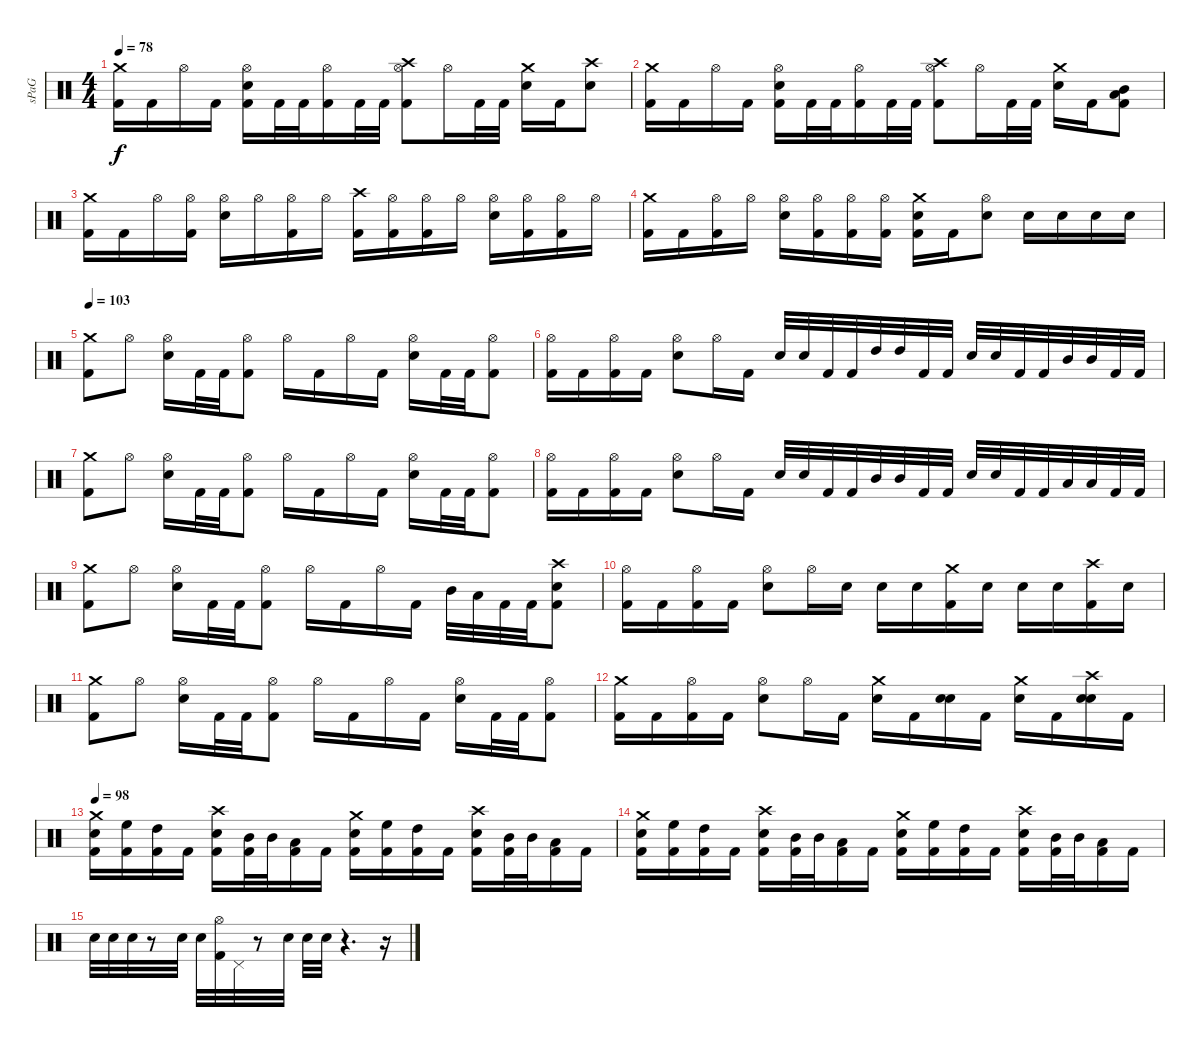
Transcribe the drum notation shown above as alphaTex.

\track ("sPaG" "sPaG") {instrument percussion}
\staff {score}
\articulation defaults
\ts (4 4)
\tempo 78
\clef neutral
\ks c
("Crash medium (hit)" "Kick (hit) 2").16{dy f} "Kick (hit) 2".16 "Hi-Hat (open)".16 "Kick (hit) 2".16 ("Hi-Hat (open)" "Snare (hit) 2" "Kick (hit) 2").16 "Kick (hit) 2".32 "Kick (hit) 2".32 ("Hi-Hat (open)" "Kick (hit) 2").16 "Kick (hit) 2".32 "Kick (hit) 2".32 ("Crash high (hit)" "Hi-Hat (open)" "Kick (hit) 2").8 "Hi-Hat (open)".16 "Kick (hit) 2".32 "Kick (hit) 2".32 ("Crash medium (hit)" "Snare (hit) 2").16 "Kick (hit) 2".16 ("Crash high (hit)" "Snare (hit) 2").8 |
("Crash medium (hit)" "Kick (hit) 2").16 "Kick (hit) 2".16 "Hi-Hat (open)".16 "Kick (hit) 2".16 ("Hi-Hat (open)" "Snare (hit) 2" "Kick (hit) 2").16 "Kick (hit) 2".32 "Kick (hit) 2".32 ("Hi-Hat (open)" "Kick (hit) 2").16 "Kick (hit) 2".32 "Kick (hit) 2".32 ("Crash high (hit)" "Hi-Hat (open)" "Kick (hit) 2").8 "Hi-Hat (open)".16 "Kick (hit) 2".32 "Kick (hit) 2".32 ("Crash medium (hit)" "Snare (hit) 2").16 "Kick (hit) 2".16 ("Mid Tom (hit)" "Low Tom (hit)" "Kick (hit) 2").8 |
("Crash medium (hit)" "Kick (hit) 2").16 "Kick (hit) 2".16 "Hi-Hat (open)".16 ("Hi-Hat (open)" "Kick (hit) 2").16 ("Hi-Hat (open)" "Snare (hit) 2").16 "Hi-Hat (open)".16 ("Hi-Hat (open)" "Kick (hit) 2").16 "Hi-Hat (open)".16 ("Crash high (hit)" "Kick (hit) 2").16 ("Hi-Hat (open)" "Kick (hit) 2").16 ("Hi-Hat (open)" "Kick (hit) 2").16 "Hi-Hat (open)".16 ("Hi-Hat (open)" "Snare (hit) 2").16 ("Hi-Hat (open)" "Kick (hit) 2").16 ("Hi-Hat (open)" "Kick (hit) 2").16 "Hi-Hat (open)".16 |
("Crash medium (hit)" "Kick (hit) 2").16 "Kick (hit) 2".16 ("Hi-Hat (open)" "Kick (hit) 2").16 "Hi-Hat (open)".16 ("Hi-Hat (open)" "Snare (hit) 2").16 ("Hi-Hat (open)" "Kick (hit) 2").16 ("Hi-Hat (open)" "Kick (hit) 2").16 ("Hi-Hat (open)" "Kick (hit) 2").16 ("Crash medium (hit)" "Snare (hit) 2" "Kick (hit) 2").16 "Kick (hit) 2".16 ("Hi-Hat (open)" "Snare (hit) 2").8 "Snare (hit) 2".16 "Snare (hit) 2".16 "Snare (hit) 2".16 "Snare (hit) 2".16 |
\tempo 103
("Crash medium (hit)" "Kick (hit) 2").8 "Hi-Hat (open)".8 ("Hi-Hat (open)" "Snare (hit) 2").16 "Kick (hit) 2".32 "Kick (hit) 2".32 ("Hi-Hat (open)" "Kick (hit) 2").8 "Hi-Hat (open)".16 "Kick (hit) 2".16 "Hi-Hat (open)".16 "Kick (hit) 2".16 ("Hi-Hat (open)" "Snare (hit) 2").16 "Kick (hit) 2".32 "Kick (hit) 2".32 ("Hi-Hat (open)" "Kick (hit) 2").8 |
("Hi-Hat (open)" "Kick (hit) 2").16 "Kick (hit) 2".16 ("Hi-Hat (open)" "Kick (hit) 2").16 "Kick (hit) 2".16 ("Hi-Hat (open)" "Snare (hit) 2").8 "Hi-Hat (open)".16 "Kick (hit) 2".16 "Snare (hit) 2".32 "Snare (hit) 2".32 "Kick (hit) 2".32 "Kick (hit) 2".32 "High Tom (hit)".32 "High Tom (hit)".32 "Kick (hit) 2".32 "Kick (hit) 2".32 "Snare (hit) 2".32 "Snare (hit) 2".32 "Kick (hit) 2".32 "Kick (hit) 2".32 "Mid Tom (hit)".32 "Mid Tom (hit)".32 "Kick (hit) 2".32 "Kick (hit) 2".32 |
("Crash medium (hit)" "Kick (hit) 2").8 "Hi-Hat (open)".8 ("Hi-Hat (open)" "Snare (hit) 2").16 "Kick (hit) 2".32 "Kick (hit) 2".32 ("Hi-Hat (open)" "Kick (hit) 2").8 "Hi-Hat (open)".16 "Kick (hit) 2".16 "Hi-Hat (open)".16 "Kick (hit) 2".16 ("Hi-Hat (open)" "Snare (hit) 2").16 "Kick (hit) 2".32 "Kick (hit) 2".32 ("Hi-Hat (open)" "Kick (hit) 2").8 |
("Hi-Hat (open)" "Kick (hit) 2").16 "Kick (hit) 2".16 ("Hi-Hat (open)" "Kick (hit) 2").16 "Kick (hit) 2".16 ("Hi-Hat (open)" "Snare (hit) 2").8 "Hi-Hat (open)".16 "Kick (hit) 2".16 "Snare (hit) 2".32 "Snare (hit) 2".32 "Kick (hit) 2".32 "Kick (hit) 2".32 "Mid Tom (hit)".32 "Mid Tom (hit)".32 "Kick (hit) 2".32 "Kick (hit) 2".32 "Snare (hit) 2".32 "Snare (hit) 2".32 "Kick (hit) 2".32 "Kick (hit) 2".32 "Low Tom (hit)".32 "Low Tom (hit)".32 "Kick (hit) 2".32 "Kick (hit) 2".32 |
("Crash medium (hit)" "Kick (hit) 2").8 "Hi-Hat (open)".8 ("Hi-Hat (open)" "Snare (hit) 2").16 "Kick (hit) 2".32 "Kick (hit) 2".32 ("Hi-Hat (open)" "Kick (hit) 2").8 "Hi-Hat (open)".16 "Kick (hit) 2".16 "Hi-Hat (open)".16 "Kick (hit) 2".16 "Mid Tom (hit)".32 "Low Tom (hit)".32 "Kick (hit) 2".32 "Kick (hit) 2".32 ("Crash high (hit)" "Snare (hit) 2" "Kick (hit) 2").8 |
("Hi-Hat (open)" "Kick (hit) 2").16 "Kick (hit) 2".16 ("Hi-Hat (open)" "Kick (hit) 2").16 "Kick (hit) 2".16 ("Hi-Hat (open)" "Snare (hit) 2").8 "Hi-Hat (open)".16 "Snare (hit) 2".16 "Snare (hit) 2".16 "Snare (hit) 2".16 ("Crash medium (hit)" "Kick (hit) 2").16 "Snare (hit) 2".16 "Snare (hit) 2".16 "Snare (hit) 2".16 ("Crash high (hit)" "Kick (hit) 2").16 "Snare (hit) 2".16 |
("Crash medium (hit)" "Kick (hit) 2").8 "Hi-Hat (open)".8 ("Hi-Hat (open)" "Snare (hit) 2").16 "Kick (hit) 2".32 "Kick (hit) 2".32 ("Hi-Hat (open)" "Kick (hit) 2").8 "Hi-Hat (open)".16 "Kick (hit) 2".16 "Hi-Hat (open)".16 "Kick (hit) 2".16 ("Hi-Hat (open)" "Snare (hit) 2").16 "Kick (hit) 2".32 "Kick (hit) 2".32 ("Hi-Hat (open)" "Kick (hit) 2").8 |
("Crash medium (hit)" "Kick (hit) 2").16 "Kick (hit) 2".16 ("Hi-Hat (open)" "Kick (hit) 2").16 "Kick (hit) 2".16 ("Hi-Hat (open)" "Snare (hit) 2").8 "Hi-Hat (open)".16 "Kick (hit) 2".16 ("Crash medium (hit)" "Snare (hit) 2").16 "Kick (hit) 2".16 ("Snare (hit) 2" "Snare (hit) 2").16 "Kick (hit) 2".16 ("Crash medium (hit)" "Snare (hit) 2").16 "Kick (hit) 2".16 ("Crash high (hit)" "Snare (hit) 2" "Snare (hit) 2").16 "Kick (hit) 2".16 |
\tempo 98
("Crash medium (hit)" "Snare (hit) 2" "Kick (hit) 2").16 ("High Floor Tom (hit)" "Kick (hit) 2").16 ("High Tom (hit)" "Kick (hit) 2").16 "Kick (hit) 2".16 ("Crash high (hit)" "Snare (hit) 2" "Kick (hit) 2").16 ("Mid Tom (hit)" "Kick (hit) 2").32 "Mid Tom (hit)".32 ("Low Tom (hit)" "Kick (hit) 2").16 "Kick (hit) 2".16 ("Crash medium (hit)" "Snare (hit) 2" "Kick (hit) 2").16 ("High Floor Tom (hit)" "Kick (hit) 2").16 ("High Tom (hit)" "Kick (hit) 2").16 "Kick (hit) 2".16 ("Crash high (hit)" "Snare (hit) 2" "Kick (hit) 2").16 ("Mid Tom (hit)" "Kick (hit) 2").32 "Mid Tom (hit)".32 ("Low Tom (hit)" "Kick (hit) 2").16 "Kick (hit) 2".16 |
("Crash medium (hit)" "Snare (hit) 2" "Kick (hit) 2").16 ("High Floor Tom (hit)" "Kick (hit) 2").16 ("High Tom (hit)" "Kick (hit) 2").16 "Kick (hit) 2".16 ("Crash high (hit)" "Snare (hit) 2" "Kick (hit) 2").16 ("Mid Tom (hit)" "Kick (hit) 2").32 "Mid Tom (hit)".32 ("Low Tom (hit)" "Kick (hit) 2").16 "Kick (hit) 2".16 ("Crash medium (hit)" "Snare (hit) 2" "Kick (hit) 2").16 ("High Floor Tom (hit)" "Kick (hit) 2").16 ("High Tom (hit)" "Kick (hit) 2").16 "Kick (hit) 2".16 ("Crash high (hit)" "Snare (hit) 2" "Kick (hit) 2").16 ("Mid Tom (hit)" "Kick (hit) 2").32 "Mid Tom (hit)".32 ("Low Tom (hit)" "Kick (hit) 2").16 "Kick (hit) 2".16 |
"Snare (hit) 2".32 "Snare (hit) 2".32 "Snare (hit) 2".32 r.8 "Snare (hit) 2".32 "Snare (hit) 2".32 ("Hi-Hat (open)" "Kick (hit) 2").32 "Pedal Hi-Hat (hit)".32 r.8 "Snare (hit) 2".32 "Snare (hit) 2".32 "Snare (hit) 2".32 r.4{d} r.16
